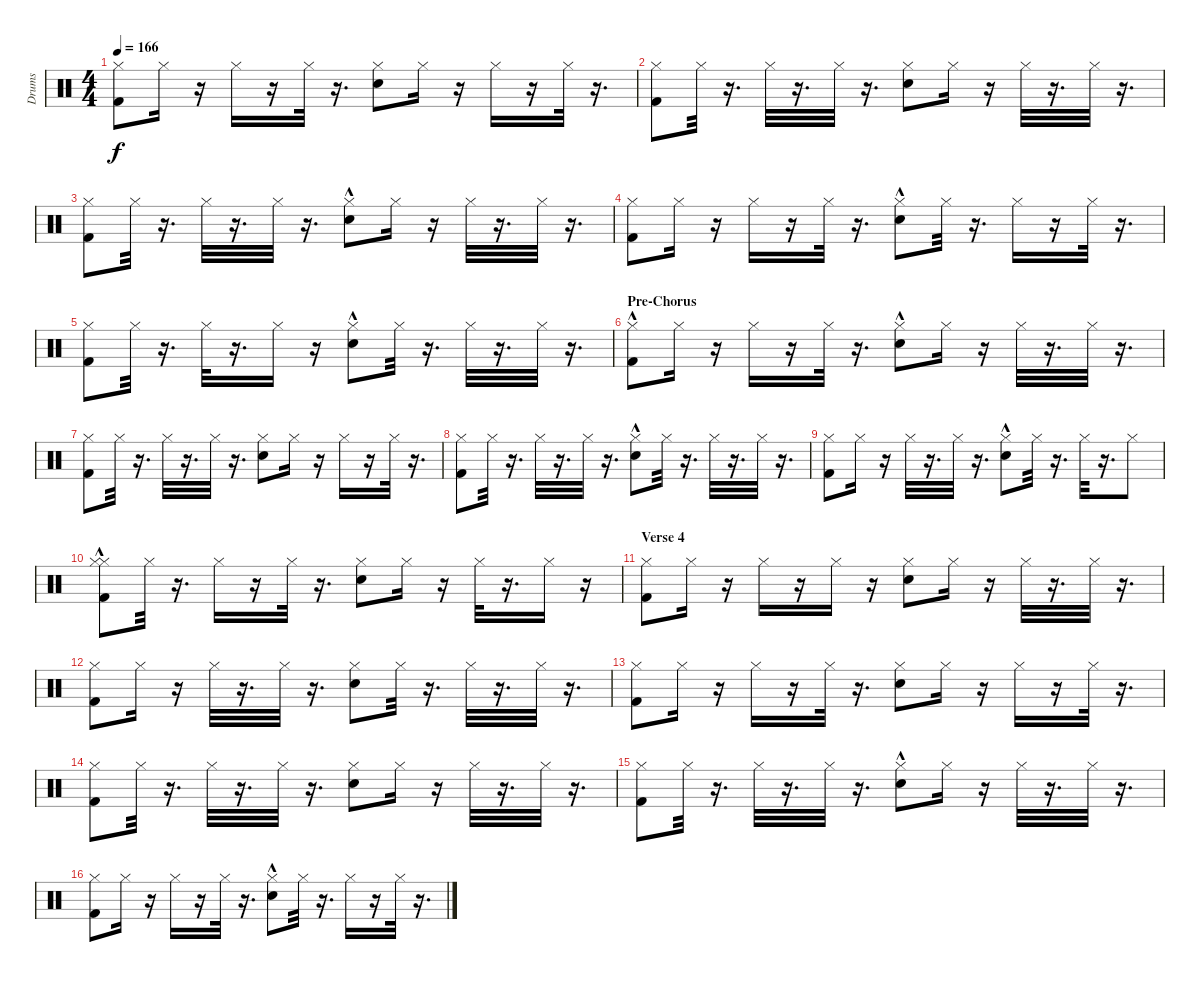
\track ("Drums" "Drums") {instrument percussion}
\staff {score}
\articulation defaults
\ts (4 4)
\tempo 166
\clef neutral
\ks c
("Kick (hit) 2" "Hi-Hat (closed)").8{dy f} "Hi-Hat (closed)".16 r.16 "Hi-Hat (closed)".16 r.16 "Hi-Hat (closed)".32 r.16{d} ("Hi-Hat (closed)" "Snare (hit) 2").8 "Hi-Hat (closed)".16 r.16 "Hi-Hat (closed)".16 r.16 "Hi-Hat (closed)".32 r.16{d} |
("Kick (hit) 2" "Hi-Hat (closed)").8 "Hi-Hat (closed)".32 r.16{d} "Hi-Hat (closed)".32 r.16{d} "Hi-Hat (closed)".32 r.16{d} ("Hi-Hat (closed)" "Snare (hit) 2").8 "Hi-Hat (closed)".16 r.16 "Hi-Hat (closed)".32 r.16{d} "Hi-Hat (closed)".32 r.16{d} |
("Kick (hit) 2" "Hi-Hat (closed)").8 "Hi-Hat (closed)".32 r.16{d} "Hi-Hat (closed)".32 r.16{d} "Hi-Hat (closed)".32 r.16{d} ("Hi-Hat (closed)" "Snare (hit) 2"{hac}).8 "Hi-Hat (closed)".16 r.16 "Hi-Hat (closed)".32 r.16{d} "Hi-Hat (closed)".32 r.16{d} |
("Kick (hit) 2" "Hi-Hat (closed)").8 "Hi-Hat (closed)".16 r.16 "Hi-Hat (closed)".16 r.16 "Hi-Hat (closed)".32 r.16{d} ("Hi-Hat (closed)" "Snare (hit) 2"{hac}).8 "Hi-Hat (closed)".32 r.16{d} "Hi-Hat (closed)".16 r.16 "Hi-Hat (closed)".32 r.16{d} |
("Kick (hit) 2" "Hi-Hat (closed)").8 "Hi-Hat (closed)".32 r.16{d} "Hi-Hat (closed)".32 r.16{d} "Hi-Hat (closed)".16 r.16 ("Hi-Hat (closed)" "Snare (hit) 2"{hac}).8 "Hi-Hat (closed)".32 r.16{d} "Hi-Hat (closed)".32 r.16{d} "Hi-Hat (closed)".32 r.16{d} |
\section ("" "Pre-Chorus")
("Kick (hit) 2"{hac} "Hi-Hat (closed)").8 "Hi-Hat (closed)".16 r.16 "Hi-Hat (closed)".16 r.16 "Hi-Hat (closed)".32 r.16{d} ("Hi-Hat (closed)" "Snare (hit) 2"{hac}).8 "Hi-Hat (closed)".16 r.16 "Hi-Hat (closed)".32 r.16{d} "Hi-Hat (closed)".32 r.16{d} |
("Kick (hit) 2" "Hi-Hat (closed)").8 "Hi-Hat (closed)".32 r.16{d} "Hi-Hat (closed)".32 r.16{d} "Hi-Hat (closed)".32 r.16{d} ("Hi-Hat (closed)" "Snare (hit) 2").8 "Hi-Hat (closed)".16 r.16 "Hi-Hat (closed)".16 r.16 "Hi-Hat (closed)".32 r.16{d} |
("Kick (hit) 2" "Hi-Hat (closed)").8 "Hi-Hat (closed)".32 r.16{d} "Hi-Hat (closed)".32 r.16{d} "Hi-Hat (closed)".32 r.16{d} ("Hi-Hat (closed)" "Snare (hit) 2"{hac}).8 "Hi-Hat (closed)".32 r.16{d} "Hi-Hat (closed)".32 r.16{d} "Hi-Hat (closed)".32 r.16{d} |
("Kick (hit) 2" "Hi-Hat (closed)").8 "Hi-Hat (closed)".16 r.16 "Hi-Hat (closed)".32 r.16{d} "Hi-Hat (closed)".32 r.16{d} ("Hi-Hat (closed)" "Snare (hit) 2"{hac}).8 "Hi-Hat (closed)".32 r.16{d} "Hi-Hat (closed)".32 r.16{d} "Hi-Hat (closed)".8 |
("Hi-Hat (closed)" "Kick (hit) 2"{hac} "Hi-Hat (closed)").8 "Hi-Hat (closed)".32 r.16{d} "Hi-Hat (closed)".16 r.16 "Hi-Hat (closed)".32 r.16{d} ("Hi-Hat (closed)" "Snare (hit) 2").8 "Hi-Hat (closed)".16 r.16 "Hi-Hat (closed)".32 r.16{d} "Hi-Hat (closed)".16 r.16 |
\section ("" "Verse 4")
("Kick (hit) 2" "Hi-Hat (closed)").8 "Hi-Hat (closed)".16 r.16 "Hi-Hat (closed)".16 r.16 "Hi-Hat (closed)".16 r.16 ("Hi-Hat (closed)" "Snare (hit) 2").8 "Hi-Hat (closed)".16 r.16 "Hi-Hat (closed)".32 r.16{d} "Hi-Hat (closed)".32 r.16{d} |
("Kick (hit) 2" "Hi-Hat (closed)").8 "Hi-Hat (closed)".16 r.16 "Hi-Hat (closed)".32 r.16{d} "Hi-Hat (closed)".32 r.16{d} ("Hi-Hat (closed)" "Snare (hit) 2").8 "Hi-Hat (closed)".32 r.16{d} "Hi-Hat (closed)".32 r.16{d} "Hi-Hat (closed)".32 r.16{d} |
("Kick (hit) 2" "Hi-Hat (closed)").8 "Hi-Hat (closed)".16 r.16 "Hi-Hat (closed)".16 r.16 "Hi-Hat (closed)".32 r.16{d} ("Hi-Hat (closed)" "Snare (hit) 2").8 "Hi-Hat (closed)".16 r.16 "Hi-Hat (closed)".16 r.16 "Hi-Hat (closed)".32 r.16{d} |
("Kick (hit) 2" "Hi-Hat (closed)").8 "Hi-Hat (closed)".32 r.16{d} "Hi-Hat (closed)".32 r.16{d} "Hi-Hat (closed)".32 r.16{d} ("Hi-Hat (closed)" "Snare (hit) 2").8 "Hi-Hat (closed)".16 r.16 "Hi-Hat (closed)".32 r.16{d} "Hi-Hat (closed)".32 r.16{d} |
("Kick (hit) 2" "Hi-Hat (closed)").8 "Hi-Hat (closed)".32 r.16{d} "Hi-Hat (closed)".32 r.16{d} "Hi-Hat (closed)".32 r.16{d} ("Hi-Hat (closed)" "Snare (hit) 2"{hac}).8 "Hi-Hat (closed)".16 r.16 "Hi-Hat (closed)".32 r.16{d} "Hi-Hat (closed)".32 r.16{d} |
("Kick (hit) 2" "Hi-Hat (closed)").8 "Hi-Hat (closed)".16 r.16 "Hi-Hat (closed)".16 r.16 "Hi-Hat (closed)".32 r.16{d} ("Hi-Hat (closed)" "Snare (hit) 2"{hac}).8 "Hi-Hat (closed)".32 r.16{d} "Hi-Hat (closed)".16 r.16 "Hi-Hat (closed)".32 r.16{d}
